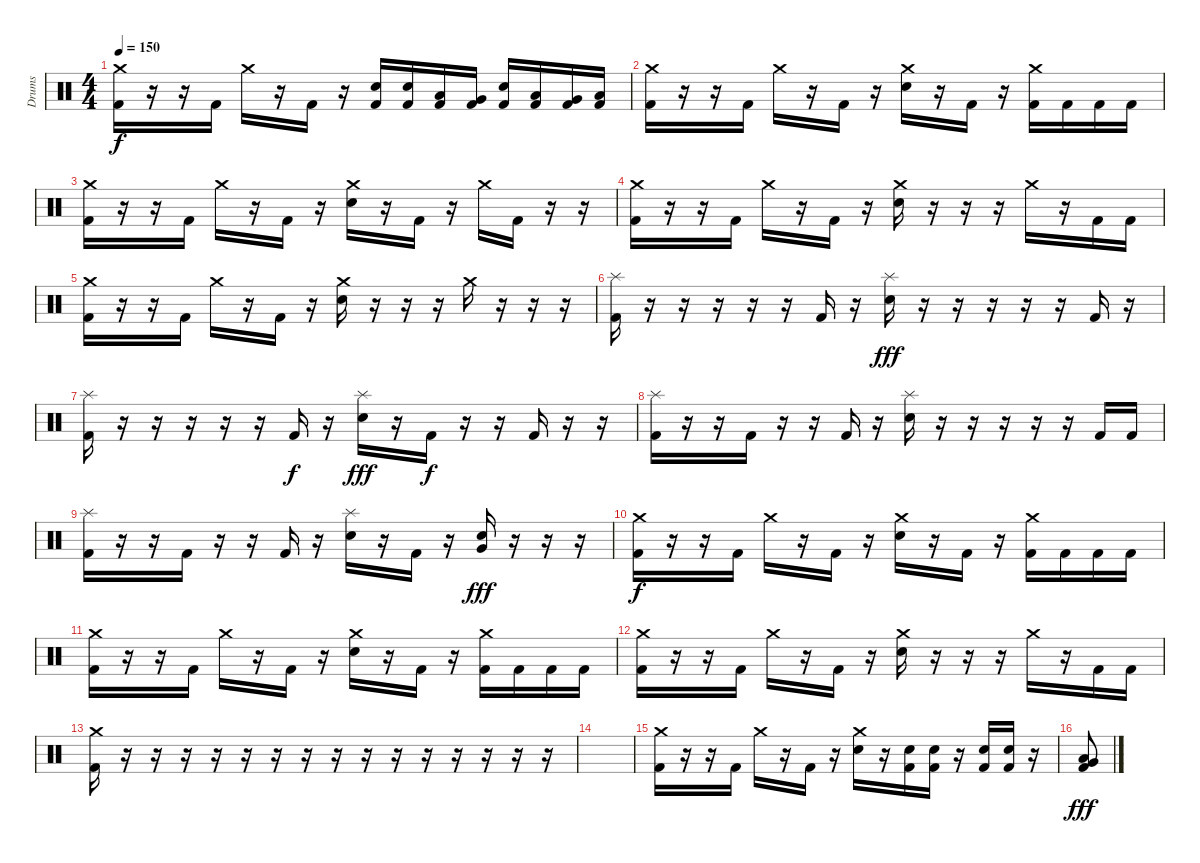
\track ("Drums" "Drums") {instrument percussion}
\staff {score}
\articulation defaults
\ts (4 4)
\tempo 150
\clef neutral
\ks c
("Crash medium (hit)" "Kick (hit) 2").16{dy f} r.16 r.16 "Kick (hit) 2".16 "Crash medium (hit)".16 r.16 "Kick (hit) 2".16 r.16 ("Electric Snare (hit)" "Kick (hit) 2").16 ("Electric Snare (hit)" "Kick (hit) 2").16 ("Low Tom (hit)" "Kick (hit) 2").16 ("Very Low Tom (hit)" "Kick (hit) 2").16 ("Electric Snare (hit)" "Kick (hit) 2").16 ("Low Tom (hit)" "Kick (hit) 2").16 ("Very Low Tom (hit)" "Kick (hit) 2").16 ("Low Floor Tom (hit)" "Kick (hit) 2").16 |
("Crash medium (hit)" "Kick (hit) 2").16 r.16 r.16 "Kick (hit) 2".16 "Crash medium (hit)".16 r.16 "Kick (hit) 2".16 r.16 ("Crash medium (hit)" "Electric Snare (hit)").16 r.16 "Kick (hit) 2".16 r.16 ("Crash medium (hit)" "Kick (hit) 2").16 "Kick (hit) 2".16 "Kick (hit) 2".16 "Kick (hit) 2".16 |
("Crash medium (hit)" "Kick (hit) 2").16 r.16 r.16 "Kick (hit) 2".16 "Crash medium (hit)".16 r.16 "Kick (hit) 2".16 r.16 ("Crash medium (hit)" "Electric Snare (hit)").16 r.16 "Kick (hit) 2".16 r.16 "Crash medium (hit)".16 "Kick (hit) 2".16 r.16 r.16 |
("Crash medium (hit)" "Kick (hit) 2").16 r.16 r.16 "Kick (hit) 2".16 "Crash medium (hit)".16 r.16 "Kick (hit) 2".16 r.16 ("Crash medium (hit)" "Electric Snare (hit)").16 r.16 r.16 r.16 "Crash medium (hit)".16 r.16 "Kick (hit) 2".16 "Kick (hit) 2".16 |
("Crash medium (hit)" "Kick (hit) 2").16 r.16 r.16 "Kick (hit) 2".16 "Crash medium (hit)".16 r.16 "Kick (hit) 2".16 r.16 ("Crash medium (hit)" "Electric Snare (hit)").16 r.16 r.16 r.16 "Crash medium (hit)".16 r.16 r.16 r.16 |
("Splash (hit)" "Kick (hit) 2").16 r.16 r.16 r.16 r.16 r.16 "Kick (hit) 2".16 r.16 ("Splash (hit)" "Electric Snare (hit)").16{dy fff} r.16 r.16 r.16 r.16 r.16 "Kick (hit) 2".16 r.16 |
("Splash (hit)" "Kick (hit) 2").16 r.16 r.16 r.16 r.16 r.16 "Kick (hit) 2".16{dy f} r.16 ("Splash (hit)" "Electric Snare (hit)").16{dy fff} r.16 "Kick (hit) 2".16{dy f} r.16 r.16 "Kick (hit) 2".16 r.16 r.16 |
("Splash (hit)" "Kick (hit) 2").16 r.16 r.16 "Kick (hit) 2".16 r.16 r.16 "Kick (hit) 2".16 r.16 ("Splash (hit)" "Electric Snare (hit)").16 r.16 r.16 r.16 r.16 r.16 "Kick (hit) 2".16 "Kick (hit) 2".16 |
("Splash (hit)" "Kick (hit) 2").16 r.16 r.16 "Kick (hit) 2".16 r.16 r.16 "Kick (hit) 2".16 r.16 ("Splash (hit)" "Electric Snare (hit)").16 r.16 "Kick (hit) 2".16 r.16 ("Electric Snare (hit)" "Very Low Tom (hit)").16{dy fff} r.16 r.16 r.16 |
("Crash medium (hit)" "Kick (hit) 2").16{dy f} r.16 r.16 "Kick (hit) 2".16 "Crash medium (hit)".16 r.16 "Kick (hit) 2".16 r.16 ("Crash medium (hit)" "Electric Snare (hit)").16 r.16 "Kick (hit) 2".16 r.16 ("Crash medium (hit)" "Kick (hit) 2").16 "Kick (hit) 2".16 "Kick (hit) 2".16 "Kick (hit) 2".16 |
("Crash medium (hit)" "Kick (hit) 2").16 r.16 r.16 "Kick (hit) 2".16 "Crash medium (hit)".16 r.16 "Kick (hit) 2".16 r.16 ("Crash medium (hit)" "Electric Snare (hit)").16 r.16 "Kick (hit) 2".16 r.16 ("Crash medium (hit)" "Kick (hit) 2").16 "Kick (hit) 2".16 "Kick (hit) 2".16 "Kick (hit) 2".16 |
("Crash medium (hit)" "Kick (hit) 2").16 r.16 r.16 "Kick (hit) 2".16 "Crash medium (hit)".16 r.16 "Kick (hit) 2".16 r.16 ("Crash medium (hit)" "Electric Snare (hit)").16 r.16 r.16 r.16 "Crash medium (hit)".16 r.16 "Kick (hit) 2".16 "Kick (hit) 2".16 |
("Crash medium (hit)" "Kick (hit) 2").16 r.16 r.16 r.16 r.16 r.16 r.16 r.16 r.16 r.16 r.16 r.16 r.16 r.16 r.16 r.16 |
|
("Crash medium (hit)" "Kick (hit) 2").16 r.16 r.16 "Kick (hit) 2".16 "Crash medium (hit)".16 r.16 "Kick (hit) 2".16 r.16 ("Crash medium (hit)" "Electric Snare (hit)").16 r.16 ("Electric Snare (hit)" "Kick (hit) 2").16 ("Electric Snare (hit)" "Kick (hit) 2").16 r.16 ("Electric Snare (hit)" "Kick (hit) 2").16 ("Electric Snare (hit)" "Kick (hit) 2").16 r.16 |
("Low Floor Tom (hit)" "Very Low Tom (hit)" "Kick (hit) 2").8{dy fff}
